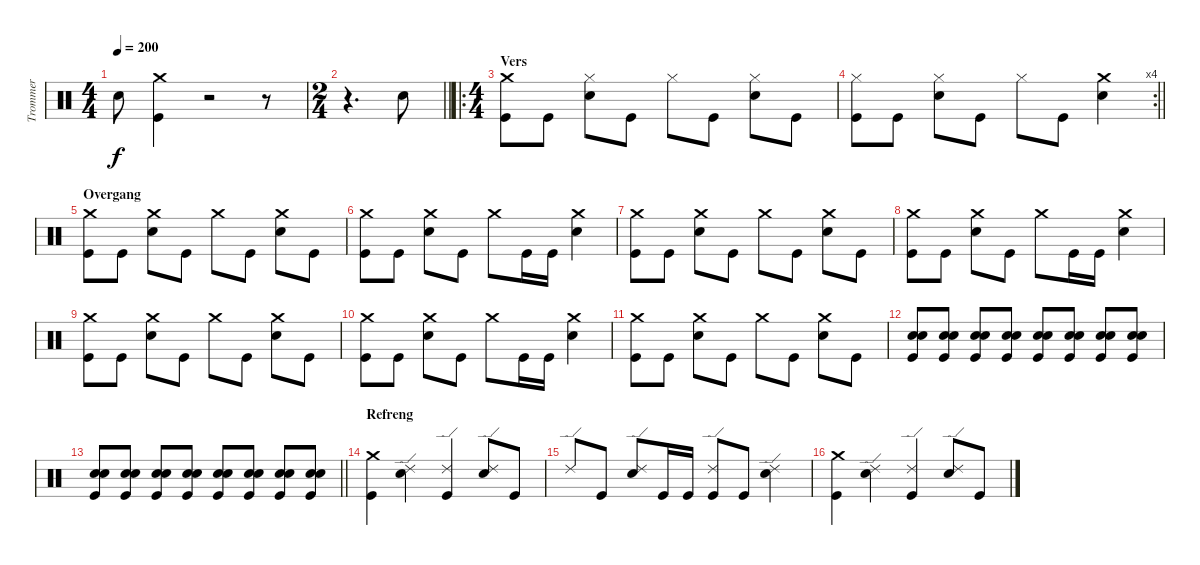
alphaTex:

\track ("Trommer" "Trommer") {instrument percussion}
\staff {score}
\articulation defaults
\ts (4 4)
\tempo 200
\clef neutral
\ks c "Snare (hit) 2".8{dy f}
("Crash medium (hit)" "Kick (hit)").4 r.2{volume 0} r.8 |
\ts (2 4)
\barLineRight lightlight
r.4{d} "Snare (hit) 2".8{volume 16} |
\ro
\ts (4 4)
\section ("" "Vers")
("Crash medium (hit)" "Kick (hit)").8 "Kick (hit)".8 ("Hi-Hat (closed)" "Snare (hit) 2").8 "Kick (hit)".8 "Hi-Hat (closed)".8 "Kick (hit)".8 ("Hi-Hat (closed)" "Snare (hit) 2").8 "Kick (hit)".8 |
\rc 4
\barLineRight lightlight
("Hi-Hat (closed)" "Kick (hit)").8 "Kick (hit)".8 ("Hi-Hat (closed)" "Snare (hit) 2").8 "Kick (hit)".8 "Hi-Hat (closed)".8 "Kick (hit)".8 ("Crash medium (hit)" "Snare (hit) 2").4 |
\section ("" "Overgang")
("Crash medium (hit)" "Kick (hit)").8 "Kick (hit)".8 ("Crash medium (hit)" "Snare (hit) 2").8 "Kick (hit)".8 "Crash medium (hit)".8 "Kick (hit)".8 ("Crash medium (hit)" "Snare (hit) 2").8 "Kick (hit)".8 |
("Crash medium (hit)" "Kick (hit)").8 "Kick (hit)".8 ("Crash medium (hit)" "Snare (hit) 2").8 "Kick (hit)".8 "Crash medium (hit)".8 "Kick (hit)".16 "Kick (hit)".16 ("Crash medium (hit)" "Snare (hit) 2").4 |
("Crash medium (hit)" "Kick (hit)").8 "Kick (hit)".8 ("Crash medium (hit)" "Snare (hit) 2").8 "Kick (hit)".8 "Crash medium (hit)".8 "Kick (hit)".8 ("Crash medium (hit)" "Snare (hit) 2").8 "Kick (hit)".8 |
("Crash medium (hit)" "Kick (hit)").8 "Kick (hit)".8 ("Crash medium (hit)" "Snare (hit) 2").8 "Kick (hit)".8 "Crash medium (hit)".8 "Kick (hit)".16 "Kick (hit)".16 ("Crash medium (hit)" "Snare (hit) 2").4 |
("Crash medium (hit)" "Kick (hit)").8 "Kick (hit)".8 ("Crash medium (hit)" "Snare (hit) 2").8 "Kick (hit)".8 "Crash medium (hit)".8 "Kick (hit)".8 ("Crash medium (hit)" "Snare (hit) 2").8 "Kick (hit)".8 |
("Crash medium (hit)" "Kick (hit)").8 "Kick (hit)".8 ("Crash medium (hit)" "Snare (hit) 2").8 "Kick (hit)".8 "Crash medium (hit)".8 "Kick (hit)".16 "Kick (hit)".16 ("Crash medium (hit)" "Snare (hit) 2").4 |
("Crash medium (hit)" "Kick (hit)").8 "Kick (hit)".8 ("Crash medium (hit)" "Snare (hit) 2").8 "Kick (hit)".8 "Crash medium (hit)".8 "Kick (hit)".8 ("Crash medium (hit)" "Snare (hit) 2").8 "Kick (hit)".8 |
("Snare (hit) 2" "Snare (hit) 2" "Kick (hit)").8 ("Snare (hit) 2" "Snare (hit) 2" "Kick (hit)").8 ("Snare (hit) 2" "Snare (hit) 2" "Kick (hit)").8 ("Snare (hit) 2" "Snare (hit) 2" "Kick (hit)").8 ("Snare (hit) 2" "Snare (hit) 2" "Kick (hit)").8 ("Snare (hit) 2" "Snare (hit) 2" "Kick (hit)").8 ("Snare (hit) 2" "Snare (hit) 2" "Kick (hit)").8 ("Snare (hit) 2" "Snare (hit) 2" "Kick (hit)").8 |
\barLineRight lightlight
("Snare (hit) 2" "Snare (hit) 2" "Kick (hit)").8 ("Snare (hit) 2" "Snare (hit) 2" "Kick (hit)").8 ("Snare (hit) 2" "Snare (hit) 2" "Kick (hit)").8 ("Snare (hit) 2" "Snare (hit) 2" "Kick (hit)").8 ("Snare (hit) 2" "Snare (hit) 2" "Kick (hit)").8 ("Snare (hit) 2" "Snare (hit) 2" "Kick (hit)").8 ("Snare (hit) 2" "Snare (hit) 2" "Kick (hit)").8 ("Snare (hit) 2" "Snare (hit) 2" "Kick (hit)").8 |
\section ("" "Refreng")
("Crash medium (hit)" "Kick (hit)").4 ("Ride (edge) 2" "Snare (hit) 2").4 ("Ride (edge) 2" "Kick (hit)").4 ("Ride (edge) 2" "Snare (hit) 2").8 "Kick (hit)".8 |
"Ride (edge) 2".8 "Kick (hit)".8 ("Ride (edge) 2" "Snare (hit) 2").8 "Kick (hit)".16 "Kick (hit)".16 ("Ride (edge) 2" "Kick (hit)").8 "Kick (hit)".8 ("Ride (edge) 2" "Snare (hit) 2").4 |
("Crash medium (hit)" "Kick (hit)").4 ("Ride (edge) 2" "Snare (hit) 2").4 ("Ride (edge) 2" "Kick (hit)").4 ("Ride (edge) 2" "Snare (hit) 2").8 "Kick (hit)".8
